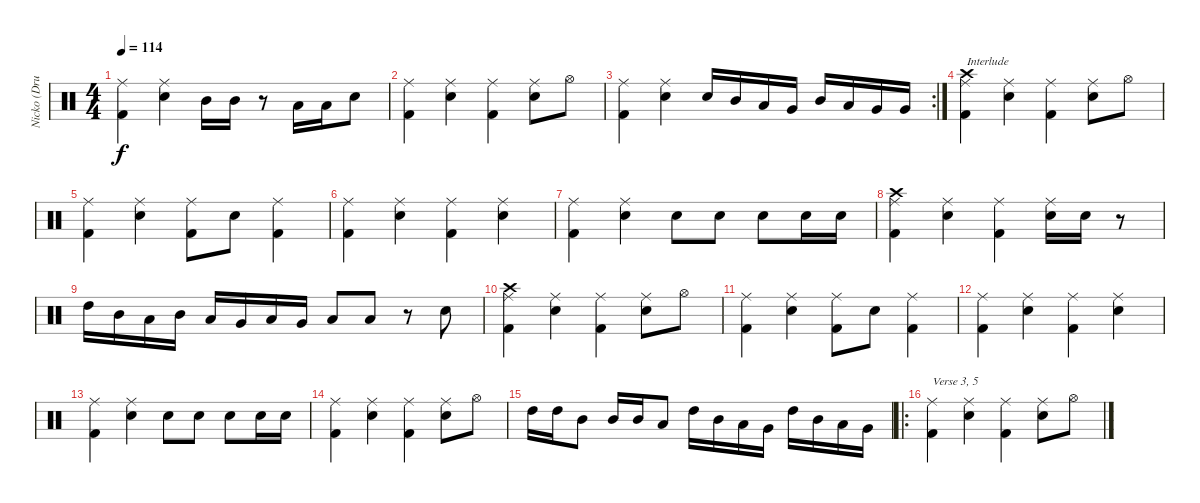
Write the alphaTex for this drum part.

\track ("Nicko (Drums)" "Nicko (Dru") {instrument percussion}
\staff {score}
\articulation defaults
\ts (4 4)
\tempo 114
\clef neutral
\ks c
("Ride (middle)" "Kick (hit) 2").4{dy f} ("Ride (middle)" "Snare (hit) 2").4 "Mid Tom (hit)".16 "Mid Tom (hit)".16 r.8 "Low Tom (hit)".16 "Low Tom (hit)".16 "Snare (hit) 2".8 |
("Ride (middle)" "Kick (hit) 2").4 ("Ride (middle)" "Snare (hit) 2").4 ("Ride (middle)" "Kick (hit) 2").4 ("Ride (middle)" "Snare (hit) 2").8 "Hi-Hat (open)".8 |
\rc 2
("Ride (middle)" "Kick (hit) 2").4 ("Ride (middle)" "Snare (hit) 2").4 "Snare (hit) 2".16 "Mid Tom (hit)".16 "Low Tom (hit)".16 "Very Low Tom (hit)".16 "Mid Tom (hit)".16 "Low Tom (hit)".16 "Very Low Tom (hit)".16 "Very Low Tom (hit)".16 |
("Ride (middle)" "Kick (hit) 2" "Crash high (hit)").4{txt "Interlude"} ("Ride (middle)" "Snare (hit) 2").4 ("Ride (middle)" "Kick (hit) 2").4 ("Ride (middle)" "Snare (hit) 2").8 "Hi-Hat (open)".8 |
("Ride (middle)" "Kick (hit) 2").4 ("Ride (middle)" "Snare (hit) 2").4 ("Ride (middle)" "Kick (hit) 2").8 "Snare (hit) 2".8 ("Ride (middle)" "Kick (hit) 2").4 |
("Ride (middle)" "Kick (hit) 2").4 ("Ride (middle)" "Snare (hit) 2").4 ("Ride (middle)" "Kick (hit) 2").4 ("Ride (middle)" "Snare (hit) 2").4 |
("Ride (middle)" "Kick (hit) 2").4 ("Ride (middle)" "Snare (hit) 2").4 "Snare (hit) 2".8 "Snare (hit) 2".8 "Snare (hit) 2".8 "Snare (hit) 2".16 "Snare (hit) 2".16 |
("Ride (middle)" "Kick (hit) 2" "Crash high (hit)").4 ("Ride (middle)" "Snare (hit) 2").4 ("Ride (middle)" "Kick (hit) 2").4 ("Ride (middle)" "Snare (hit) 2").16 "Snare (hit) 2".16 r.8 |
"High Tom (hit)".16 "Mid Tom (hit)".16 "Low Tom (hit)".16 "Mid Tom (hit)".16 "Low Tom (hit)".16 "Very Low Tom (hit)".16 "Low Tom (hit)".16 "Very Low Tom (hit)".16 "Low Floor Tom (hit)".8 "Low Floor Tom (hit)".8 r.8 "Snare (hit) 2".8 |
("Ride (middle)" "Kick (hit) 2" "Crash high (hit)").4 ("Ride (middle)" "Snare (hit) 2").4 ("Ride (middle)" "Kick (hit) 2").4 ("Ride (middle)" "Snare (hit) 2").8 "Hi-Hat (open)".8 |
("Ride (middle)" "Kick (hit) 2").4 ("Ride (middle)" "Snare (hit) 2").4 ("Ride (middle)" "Kick (hit) 2").8 "Snare (hit) 2".8 ("Ride (middle)" "Kick (hit) 2").4 |
("Ride (middle)" "Kick (hit) 2").4 ("Ride (middle)" "Snare (hit) 2").4 ("Ride (middle)" "Kick (hit) 2").4 ("Ride (middle)" "Snare (hit) 2").4 |
("Ride (middle)" "Kick (hit) 2").4 ("Ride (middle)" "Snare (hit) 2").4 "Snare (hit) 2".8 "Snare (hit) 2".8 "Snare (hit) 2".8 "Snare (hit) 2".16 "Snare (hit) 2".16 |
("Ride (middle)" "Kick (hit) 2").4 ("Ride (middle)" "Snare (hit) 2").4 ("Ride (middle)" "Kick (hit) 2").4 ("Ride (middle)" "Snare (hit) 2").8 "Hi-Hat (open)".8 |
"High Tom (hit)".16 "High Tom (hit)".16 "Mid Tom (hit)".8 "Mid Tom (hit)".16 "Mid Tom (hit)".16 "Low Tom (hit)".8 "High Tom (hit)".16 "Mid Tom (hit)".16 "Low Tom (hit)".16 "Very Low Tom (hit)".16 "High Tom (hit)".16 "Mid Tom (hit)".16 "Low Tom (hit)".16 "Very Low Tom (hit)".16 |
\ro
("Ride (middle)" "Kick (hit) 2").4{txt "Verse 3, 5"} ("Ride (middle)" "Snare (hit) 2").4 ("Ride (middle)" "Kick (hit) 2").4 ("Ride (middle)" "Snare (hit) 2").8 "Hi-Hat (open)".8
